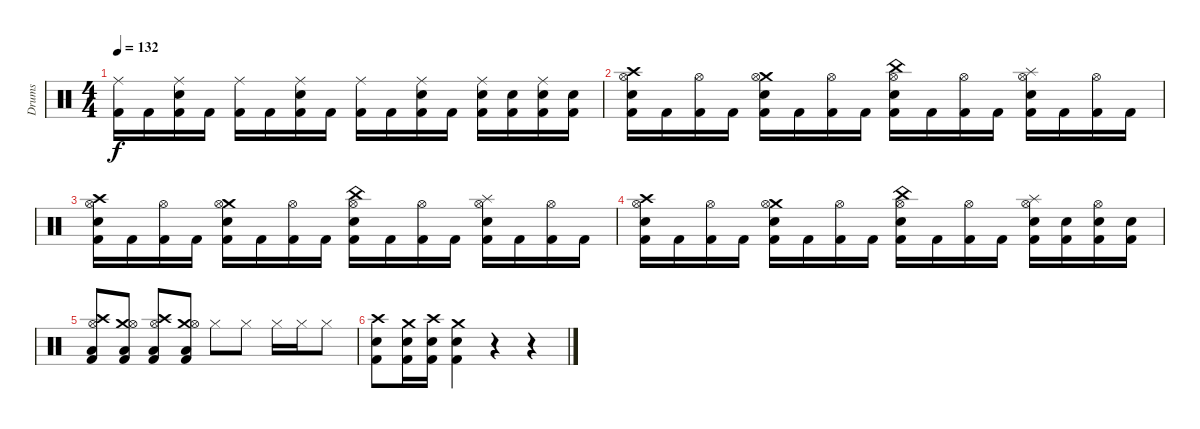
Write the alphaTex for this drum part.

\track ("Drums" "Drums") {instrument percussion}
\staff {score}
\articulation defaults
\ts (4 4)
\tempo 132
\clef neutral
\ks c
("Ride (middle)" "Kick (hit) 2").16{dy f} "Kick (hit) 2".16 ("Ride (middle)" "Snare (hit) 2" "Kick (hit) 2").16 "Kick (hit) 2".16 ("Ride (middle)" "Kick (hit) 2").16 "Kick (hit) 2".16 ("Ride (middle)" "Snare (hit) 2" "Kick (hit) 2").16 "Kick (hit) 2".16 ("Ride (middle)" "Kick (hit) 2").16 "Kick (hit) 2".16 ("Ride (middle)" "Snare (hit) 2" "Kick (hit) 2").16 "Kick (hit) 2".16 ("Ride (middle)" "Snare (hit) 2" "Kick (hit) 2").16 ("Snare (hit) 2" "Kick (hit) 2").16 ("Ride (middle)" "Snare (hit) 2" "Kick (hit) 2").16 ("Snare (hit) 2" "Kick (hit) 2").16 |
("Crash high (hit)" "Hi-Hat (open)" "Snare (hit) 2" "Kick (hit) 2").16 "Kick (hit) 2".16 ("Hi-Hat (open)" "Kick (hit) 2").16 "Kick (hit) 2".16 ("Crash medium (hit)" "Hi-Hat (open)" "Snare (hit) 2" "Kick (hit) 2").16 "Kick (hit) 2".16 ("Hi-Hat (open)" "Kick (hit) 2").16 "Kick (hit) 2".16 ("China (hit)" "Hi-Hat (open)" "Snare (hit) 2" "Kick (hit) 2").16 "Kick (hit) 2".16 ("Hi-Hat (open)" "Kick (hit) 2").16 "Kick (hit) 2".16 ("Splash (hit)" "Hi-Hat (open)" "Snare (hit) 2" "Kick (hit) 2").16 "Kick (hit) 2".16 ("Hi-Hat (open)" "Kick (hit) 2").16 "Kick (hit) 2".16 |
("Crash high (hit)" "Hi-Hat (open)" "Snare (hit) 2" "Kick (hit) 2").16 "Kick (hit) 2".16 ("Hi-Hat (open)" "Kick (hit) 2").16 "Kick (hit) 2".16 ("Crash medium (hit)" "Hi-Hat (open)" "Snare (hit) 2" "Kick (hit) 2").16 "Kick (hit) 2".16 ("Hi-Hat (open)" "Kick (hit) 2").16 "Kick (hit) 2".16 ("China (hit)" "Hi-Hat (open)" "Snare (hit) 2" "Kick (hit) 2").16 "Kick (hit) 2".16 ("Hi-Hat (open)" "Kick (hit) 2").16 "Kick (hit) 2".16 ("Splash (hit)" "Hi-Hat (open)" "Snare (hit) 2" "Kick (hit) 2").16 "Kick (hit) 2".16 ("Hi-Hat (open)" "Kick (hit) 2").16 "Kick (hit) 2".16 |
("Crash high (hit)" "Hi-Hat (open)" "Snare (hit) 2" "Kick (hit) 2").16 "Kick (hit) 2".16 ("Hi-Hat (open)" "Kick (hit) 2").16 "Kick (hit) 2".16 ("Crash medium (hit)" "Hi-Hat (open)" "Snare (hit) 2" "Kick (hit) 2").16 "Kick (hit) 2".16 ("Hi-Hat (open)" "Kick (hit) 2").16 "Kick (hit) 2".16 ("China (hit)" "Hi-Hat (open)" "Snare (hit) 2" "Kick (hit) 2").16 "Kick (hit) 2".16 ("Hi-Hat (open)" "Kick (hit) 2").16 "Kick (hit) 2".16 ("Splash (hit)" "Hi-Hat (open)" "Snare (hit) 2" "Kick (hit) 2").16 ("Snare (hit) 2" "Kick (hit) 2").16 ("Hi-Hat (open)" "Snare (hit) 2" "Kick (hit) 2").16 ("Snare (hit) 2" "Kick (hit) 2").16 |
("Crash high (hit)" "Hi-Hat (open)" "Low Floor Tom (hit)" "Kick (hit) 2").8 ("Crash medium (hit)" "Hi-Hat (open)" "Low Floor Tom (hit)" "Kick (hit) 2").8 ("Crash high (hit)" "Hi-Hat (open)" "Low Floor Tom (hit)" "Kick (hit) 2").8 ("Crash medium (hit)" "Hi-Hat (open)" "Low Floor Tom (hit)" "Kick (hit) 2").8 "Hi-Hat (closed)".8 "Hi-Hat (closed)".8 "Hi-Hat (closed)".16 "Hi-Hat (closed)".16 "Hi-Hat (closed)".8 |
("Crash high (hit)" "Snare (hit) 2" "Kick (hit) 2").8 ("Crash medium (hit)" "Snare (hit) 2" "Kick (hit) 2").16 ("Crash high (hit)" "Snare (hit) 2" "Kick (hit) 2").16 ("Crash medium (hit)" "Snare (hit) 2" "Kick (hit) 2").4 r.4 r.4
